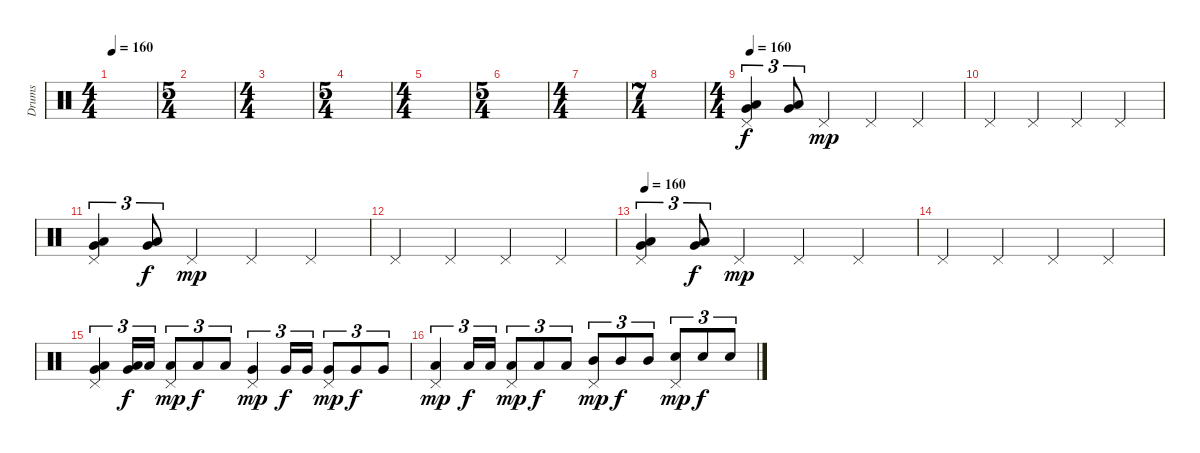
\track ("Drums" "Drums") {instrument percussion}
\staff {score}
\articulation defaults
\ts (4 4)
\tempo 160
\tempo 120
\tempo 160
\clef neutral
\ks c
|
\ts (5 4)
|
\ts (4 4)
|
\ts (5 4)
|
\ts (4 4)
|
\ts (5 4)
|
\ts (4 4)
|
\ts (7 4)
|
\ts (4 4)
\tempo 160
("Very Low Tom (hit)" "Low Floor Tom (hit)" "Pedal Hi-Hat (hit)").4{tu (3 2)} ("Very Low Tom (hit)" "Low Floor Tom (hit)").8{tu (3 2) dy f} "Pedal Hi-Hat (hit)".4{dy mp} "Pedal Hi-Hat (hit)".4 "Pedal Hi-Hat (hit)".4 |
"Pedal Hi-Hat (hit)".4 "Pedal Hi-Hat (hit)".4 "Pedal Hi-Hat (hit)".4 "Pedal Hi-Hat (hit)".4 |
("Very Low Tom (hit)" "Low Floor Tom (hit)" "Pedal Hi-Hat (hit)").4{tu (3 2)} ("Very Low Tom (hit)" "Low Floor Tom (hit)").8{tu (3 2) dy f} "Pedal Hi-Hat (hit)".4{dy mp} "Pedal Hi-Hat (hit)".4 "Pedal Hi-Hat (hit)".4 |
"Pedal Hi-Hat (hit)".4 "Pedal Hi-Hat (hit)".4 "Pedal Hi-Hat (hit)".4 "Pedal Hi-Hat (hit)".4 |
\tempo 160
("Very Low Tom (hit)" "Low Floor Tom (hit)" "Pedal Hi-Hat (hit)").4{tu (3 2)} ("Very Low Tom (hit)" "Low Floor Tom (hit)").8{tu (3 2) dy f} "Pedal Hi-Hat (hit)".4{dy mp} "Pedal Hi-Hat (hit)".4 "Pedal Hi-Hat (hit)".4 |
"Pedal Hi-Hat (hit)".4 "Pedal Hi-Hat (hit)".4 "Pedal Hi-Hat (hit)".4 "Pedal Hi-Hat (hit)".4 |
("Very Low Tom (hit)" "Low Floor Tom (hit)" "Pedal Hi-Hat (hit)").4{tu (3 2)} ("Very Low Tom (hit)" "Low Floor Tom (hit)").16{tu (3 2) dy f} "Low Floor Tom (hit)".16{tu (3 2)} ("Low Floor Tom (hit)" "Pedal Hi-Hat (hit)").8{tu (3 2) dy mp} "Low Floor Tom (hit)".8{tu (3 2) dy f} "Low Floor Tom (hit)".8{tu (3 2)} ("Very Low Tom (hit)" "Pedal Hi-Hat (hit)").4{tu (3 2) dy mp} "Very Low Tom (hit)".16{tu (3 2) dy f} "Very Low Tom (hit)".16{tu (3 2)} ("Very Low Tom (hit)" "Pedal Hi-Hat (hit)").8{tu (3 2) dy mp} "Very Low Tom (hit)".8{tu (3 2) dy f} "Very Low Tom (hit)".8{tu (3 2)} |
("Low Tom (hit)" "Pedal Hi-Hat (hit)").4{tu (3 2) dy mp} "Low Tom (hit)".16{tu (3 2) dy f} "Low Tom (hit)".16{tu (3 2)} ("Low Tom (hit)" "Pedal Hi-Hat (hit)").8{tu (3 2) dy mp} "Low Tom (hit)".8{tu (3 2) dy f} "Low Tom (hit)".8{tu (3 2)} ("Mid Tom (hit)" "Pedal Hi-Hat (hit)").8{tu (3 2) dy mp} "Mid Tom (hit)".8{tu (3 2) dy f} "Mid Tom (hit)".8{tu (3 2)} ("Snare (hit) 2" "Pedal Hi-Hat (hit)").8{tu (3 2) dy mp} "Snare (hit) 2".8{tu (3 2) dy f} "Snare (hit) 2".8{tu (3 2)}
